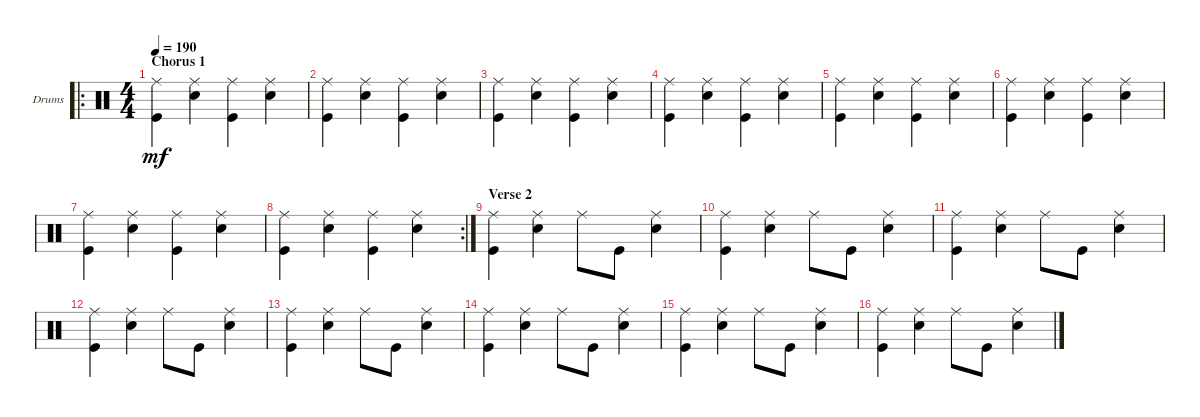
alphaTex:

\defaultSystemsLayout 4
\bracketExtendMode groupsimilarinstruments
\firstSystemTrackNameOrientation horizontal
\otherSystemsTrackNameOrientation horizontal
\track ("Drumkit" "Drums") {instrument percussion}
\staff {score}
\articulation defaults
\ro
\ts (4 4)
\section ("" "Chorus 1")
\tempo 190
\clef neutral
\ks c
("Kick (hit)" "Ride (middle)").4{dy mf} ("Snare (hit) 2" "Ride (middle)").4 ("Ride (middle)" "Kick (hit)").4 ("Ride (middle)" "Snare (hit) 2").4 |
("Kick (hit)" "Ride (middle)").4 ("Snare (hit) 2" "Ride (middle)").4 ("Ride (middle)" "Kick (hit)").4 ("Ride (middle)" "Snare (hit) 2").4 |
("Kick (hit)" "Ride (middle)").4 ("Snare (hit) 2" "Ride (middle)").4 ("Ride (middle)" "Kick (hit)").4 ("Ride (middle)" "Snare (hit) 2").4 |
("Kick (hit)" "Ride (middle)").4 ("Snare (hit) 2" "Ride (middle)").4 ("Ride (middle)" "Kick (hit)").4 ("Ride (middle)" "Snare (hit) 2").4 |
("Kick (hit)" "Ride (middle)").4 ("Snare (hit) 2" "Ride (middle)").4 ("Ride (middle)" "Kick (hit)").4 ("Ride (middle)" "Snare (hit) 2").4 |
("Kick (hit)" "Ride (middle)").4 ("Snare (hit) 2" "Ride (middle)").4 ("Ride (middle)" "Kick (hit)").4 ("Ride (middle)" "Snare (hit) 2").4 |
("Kick (hit)" "Ride (middle)").4 ("Snare (hit) 2" "Ride (middle)").4 ("Ride (middle)" "Kick (hit)").4 ("Ride (middle)" "Snare (hit) 2").4 |
\rc 2
("Kick (hit)" "Ride (middle)").4 ("Snare (hit) 2" "Ride (middle)").4 ("Ride (middle)" "Kick (hit)").4 ("Ride (middle)" "Snare (hit) 2").4 |
\section ("" "Verse 2")
("Kick (hit)" "Ride (middle)").4 ("Snare (hit) 2" "Ride (middle)").4 "Ride (middle)".8 "Kick (hit)".8 ("Ride (middle)" "Snare (hit) 2").4 |
("Kick (hit)" "Ride (middle)").4 ("Snare (hit) 2" "Ride (middle)").4 "Ride (middle)".8 "Kick (hit)".8 ("Ride (middle)" "Snare (hit) 2").4 |
("Kick (hit)" "Ride (middle)").4 ("Snare (hit) 2" "Ride (middle)").4 "Ride (middle)".8 "Kick (hit)".8 ("Ride (middle)" "Snare (hit) 2").4 |
("Kick (hit)" "Ride (middle)").4 ("Snare (hit) 2" "Ride (middle)").4 "Ride (middle)".8 "Kick (hit)".8 ("Ride (middle)" "Snare (hit) 2").4 |
("Kick (hit)" "Ride (middle)").4 ("Snare (hit) 2" "Ride (middle)").4 "Ride (middle)".8 "Kick (hit)".8 ("Ride (middle)" "Snare (hit) 2").4 |
("Kick (hit)" "Ride (middle)").4 ("Snare (hit) 2" "Ride (middle)").4 "Ride (middle)".8 "Kick (hit)".8 ("Ride (middle)" "Snare (hit) 2").4 |
("Kick (hit)" "Ride (middle)").4 ("Snare (hit) 2" "Ride (middle)").4 "Ride (middle)".8 "Kick (hit)".8 ("Ride (middle)" "Snare (hit) 2").4 |
("Kick (hit)" "Ride (middle)").4 ("Snare (hit) 2" "Ride (middle)").4 "Ride (middle)".8 "Kick (hit)".8 ("Ride (middle)" "Snare (hit) 2").4
